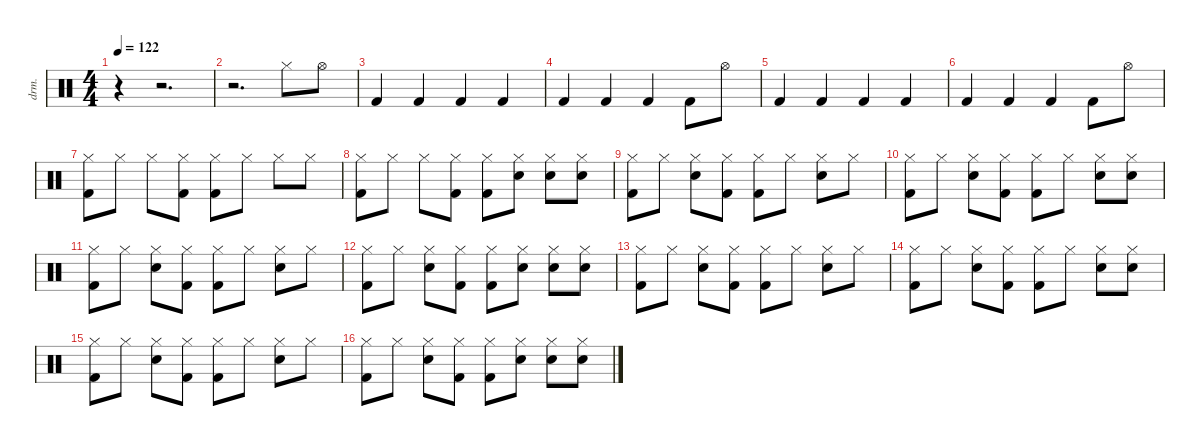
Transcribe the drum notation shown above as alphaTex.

\defaultSystemsLayout 4
\hideDynamics
\bracketExtendMode nobrackets
\track ("Drumkit" "drm.") {defaultSystemsLayout 4 instrument percussion}
\staff {score}
\articulation defaults
\ts (4 4)
\tempo 122
\clef neutral
\ks c
r.4{dy f} r.2{d} |
r.2{d} "Hi-Hat (closed)".8 "Hi-Hat (open)".8 |
"Kick (hit) 2".4 "Kick (hit) 2".4 "Kick (hit) 2".4 "Kick (hit) 2".4 |
"Kick (hit) 2".4 "Kick (hit) 2".4 "Kick (hit) 2".4 "Kick (hit) 2".8 "Hi-Hat (open)".8 |
"Kick (hit) 2".4 "Kick (hit) 2".4 "Kick (hit) 2".4 "Kick (hit) 2".4 |
"Kick (hit) 2".4 "Kick (hit) 2".4 "Kick (hit) 2".4 "Kick (hit) 2".8 "Hi-Hat (open)".8 |
("Hi-Hat (closed)" "Kick (hit) 2").8 "Hi-Hat (closed)".8 "Hi-Hat (closed)".8 ("Hi-Hat (closed)" "Kick (hit) 2").8 ("Hi-Hat (closed)" "Kick (hit) 2").8 "Hi-Hat (closed)".8 "Hi-Hat (closed)".8 "Hi-Hat (closed)".8 |
("Hi-Hat (closed)" "Kick (hit) 2").8 "Hi-Hat (closed)".8 "Hi-Hat (closed)".8 ("Hi-Hat (closed)" "Kick (hit) 2").8 ("Hi-Hat (closed)" "Kick (hit) 2").8 ("Hi-Hat (closed)" "Snare (hit) 2").8 ("Hi-Hat (closed)" "Snare (hit) 2").8 ("Hi-Hat (closed)" "Snare (hit) 2").8 |
("Hi-Hat (closed)" "Kick (hit) 2").8 "Hi-Hat (closed)".8 ("Hi-Hat (closed)" "Snare (hit) 2").8 ("Hi-Hat (closed)" "Kick (hit) 2").8 ("Hi-Hat (closed)" "Kick (hit) 2").8 "Hi-Hat (closed)".8 ("Hi-Hat (closed)" "Snare (hit) 2").8 "Hi-Hat (closed)".8 |
("Hi-Hat (closed)" "Kick (hit) 2").8 "Hi-Hat (closed)".8 ("Hi-Hat (closed)" "Snare (hit) 2").8 ("Hi-Hat (closed)" "Kick (hit) 2").8 ("Hi-Hat (closed)" "Kick (hit) 2").8 "Hi-Hat (closed)".8 ("Hi-Hat (closed)" "Snare (hit) 2").8 ("Hi-Hat (closed)" "Snare (hit) 2").8 |
("Hi-Hat (closed)" "Kick (hit) 2").8 "Hi-Hat (closed)".8 ("Hi-Hat (closed)" "Snare (hit) 2").8 ("Hi-Hat (closed)" "Kick (hit) 2").8 ("Hi-Hat (closed)" "Kick (hit) 2").8 "Hi-Hat (closed)".8 ("Hi-Hat (closed)" "Snare (hit) 2").8 "Hi-Hat (closed)".8 |
("Hi-Hat (closed)" "Kick (hit) 2").8 "Hi-Hat (closed)".8 ("Hi-Hat (closed)" "Snare (hit) 2").8 ("Hi-Hat (closed)" "Kick (hit) 2").8 ("Hi-Hat (closed)" "Kick (hit) 2").8 ("Hi-Hat (closed)" "Snare (hit) 2").8 ("Hi-Hat (closed)" "Snare (hit) 2").8 ("Hi-Hat (closed)" "Snare (hit) 2").8 |
("Hi-Hat (closed)" "Kick (hit) 2").8 "Hi-Hat (closed)".8 ("Hi-Hat (closed)" "Snare (hit) 2").8 ("Hi-Hat (closed)" "Kick (hit) 2").8 ("Hi-Hat (closed)" "Kick (hit) 2").8 "Hi-Hat (closed)".8 ("Hi-Hat (closed)" "Snare (hit) 2").8 "Hi-Hat (closed)".8 |
("Hi-Hat (closed)" "Kick (hit) 2").8 "Hi-Hat (closed)".8 ("Hi-Hat (closed)" "Snare (hit) 2").8 ("Hi-Hat (closed)" "Kick (hit) 2").8 ("Hi-Hat (closed)" "Kick (hit) 2").8 "Hi-Hat (closed)".8 ("Hi-Hat (closed)" "Snare (hit) 2").8 ("Hi-Hat (closed)" "Snare (hit) 2").8 |
("Hi-Hat (closed)" "Kick (hit) 2").8 "Hi-Hat (closed)".8 ("Hi-Hat (closed)" "Snare (hit) 2").8 ("Hi-Hat (closed)" "Kick (hit) 2").8 ("Hi-Hat (closed)" "Kick (hit) 2").8 "Hi-Hat (closed)".8 ("Hi-Hat (closed)" "Snare (hit) 2").8 "Hi-Hat (closed)".8 |
("Hi-Hat (closed)" "Kick (hit) 2").8 "Hi-Hat (closed)".8 ("Hi-Hat (closed)" "Snare (hit) 2").8 ("Hi-Hat (closed)" "Kick (hit) 2").8 ("Hi-Hat (closed)" "Kick (hit) 2").8 ("Hi-Hat (closed)" "Snare (hit) 2").8 ("Hi-Hat (closed)" "Snare (hit) 2").8 ("Hi-Hat (closed)" "Snare (hit) 2").8
